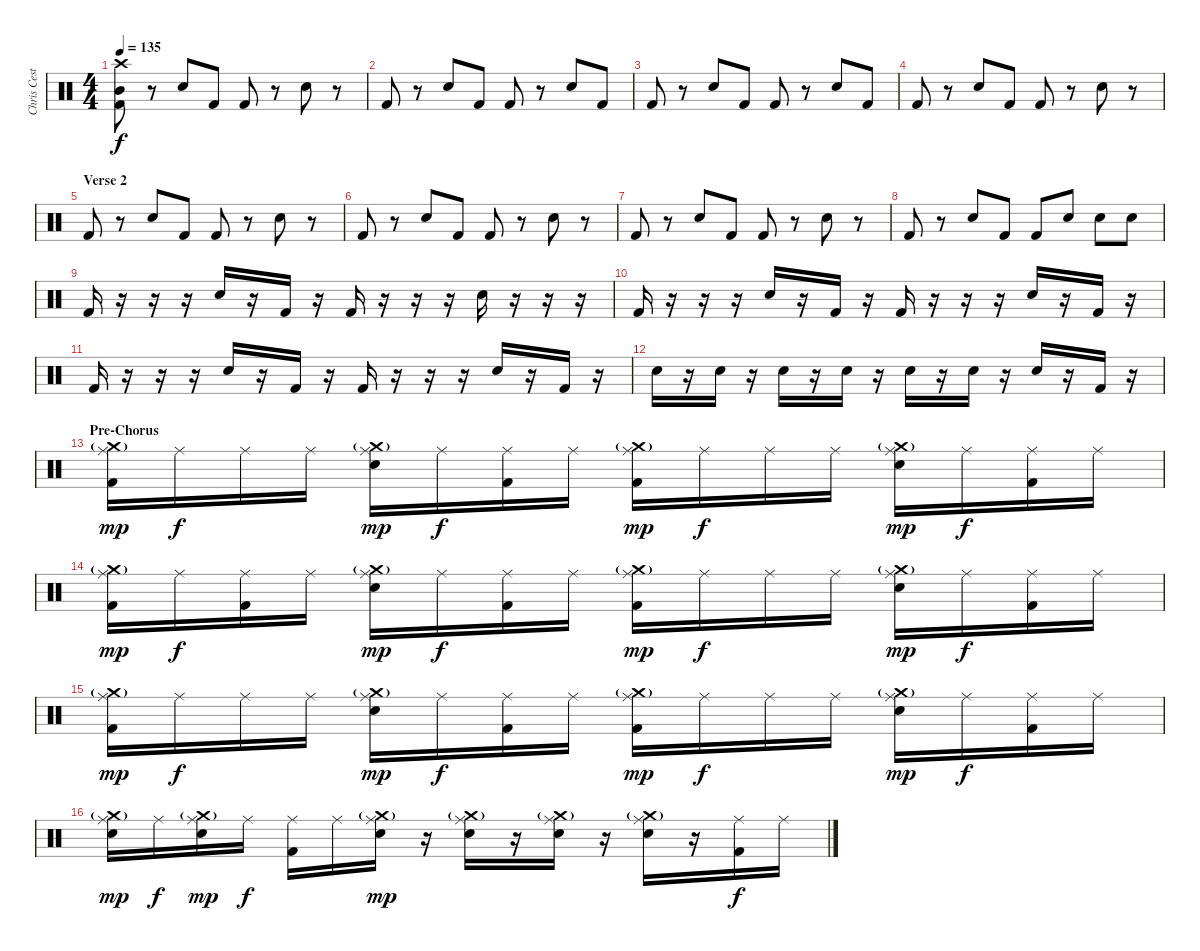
\track ("Chris Cester - Drums" "Chris Cest") {instrument percussion}
\staff {score}
\articulation defaults
\ts (4 4)
\tempo 135
\clef neutral
\ks c
("Crash high (hit)" "Mid Tom (hit)" "Kick (hit) 2").8{dy f} r.8 "Electric Snare (hit)".8 "Kick (hit) 2".8 "Kick (hit) 2".8 r.8 "Electric Snare (hit)".8 r.8 |
"Kick (hit) 2".8 r.8 "Electric Snare (hit)".8 "Kick (hit) 2".8 "Kick (hit) 2".8 r.8 "Electric Snare (hit)".8 "Kick (hit) 2".8 |
"Kick (hit) 2".8 r.8 "Electric Snare (hit)".8 "Kick (hit) 2".8 "Kick (hit) 2".8 r.8 "Electric Snare (hit)".8 "Kick (hit) 2".8 |
"Kick (hit) 2".8 r.8 "Electric Snare (hit)".8 "Kick (hit) 2".8 "Kick (hit) 2".8 r.8 "Electric Snare (hit)".8 r.8 |
\section ("" "Verse 2")
"Kick (hit) 2".8 r.8 "Electric Snare (hit)".8 "Kick (hit) 2".8 "Kick (hit) 2".8 r.8 "Electric Snare (hit)".8 r.8 |
"Kick (hit) 2".8 r.8 "Electric Snare (hit)".8 "Kick (hit) 2".8 "Kick (hit) 2".8 r.8 "Electric Snare (hit)".8 r.8 |
"Kick (hit) 2".8 r.8 "Electric Snare (hit)".8 "Kick (hit) 2".8 "Kick (hit) 2".8 r.8 "Electric Snare (hit)".8 r.8 |
"Kick (hit) 2".8 r.8 "Electric Snare (hit)".8 "Kick (hit) 2".8 "Kick (hit) 2".8 "Electric Snare (hit)".8 "Electric Snare (hit)".8 "Electric Snare (hit)".8 |
"Kick (hit) 2".16 r.16 r.16 r.16 "Electric Snare (hit)".16 r.16 "Kick (hit) 2".16 r.16 "Kick (hit) 2".16 r.16 r.16 r.16 "Electric Snare (hit)".16 r.16 r.16 r.16 |
"Kick (hit) 2".16 r.16 r.16 r.16 "Electric Snare (hit)".16 r.16 "Kick (hit) 2".16 r.16 "Kick (hit) 2".16 r.16 r.16 r.16 "Electric Snare (hit)".16 r.16 "Kick (hit) 2".16 r.16 |
"Kick (hit) 2".16 r.16 r.16 r.16 "Electric Snare (hit)".16 r.16 "Kick (hit) 2".16 r.16 "Kick (hit) 2".16 r.16 r.16 r.16 "Electric Snare (hit)".16 r.16 "Kick (hit) 2".16 r.16 |
"Electric Snare (hit)".16 r.16 "Electric Snare (hit)".16 r.16 "Electric Snare (hit)".16 r.16 "Electric Snare (hit)".16 r.16 "Electric Snare (hit)".16 r.16 "Electric Snare (hit)".16 r.16 "Electric Snare (hit)".16 r.16 "Kick (hit) 2".16 r.16 |
\section ("" "Pre-Chorus")
("Ride (middle)" "Crash medium (hit)"{g} "Kick (hit) 2").16{dy mp} "Ride (middle)".16{dy f} "Ride (middle)".16 "Ride (middle)".16 ("Ride (middle)" "Crash medium (hit)"{g} "Electric Snare (hit)").16{dy mp} "Ride (middle)".16{dy f} ("Ride (middle)" "Kick (hit) 2").16 "Ride (middle)".16 ("Ride (middle)" "Crash medium (hit)"{g} "Kick (hit) 2").16{dy mp} "Ride (middle)".16{dy f} "Ride (middle)".16 "Ride (middle)".16 ("Ride (middle)" "Crash medium (hit)"{g} "Electric Snare (hit)").16{dy mp} "Ride (middle)".16{dy f} ("Ride (middle)" "Kick (hit) 2").16 "Ride (middle)".16 |
("Ride (middle)" "Crash medium (hit)"{g} "Kick (hit) 2").16{dy mp} "Ride (middle)".16{dy f} ("Ride (middle)" "Kick (hit) 2").16 "Ride (middle)".16 ("Ride (middle)" "Crash medium (hit)"{g} "Electric Snare (hit)").16{dy mp} "Ride (middle)".16{dy f} ("Ride (middle)" "Kick (hit) 2").16 "Ride (middle)".16 ("Ride (middle)" "Crash medium (hit)"{g} "Kick (hit) 2").16{dy mp} "Ride (middle)".16{dy f} "Ride (middle)".16 "Ride (middle)".16 ("Ride (middle)" "Crash medium (hit)"{g} "Electric Snare (hit)").16{dy mp} "Ride (middle)".16{dy f} ("Ride (middle)" "Kick (hit) 2").16 "Ride (middle)".16 |
("Ride (middle)" "Crash medium (hit)"{g} "Kick (hit) 2").16{dy mp} "Ride (middle)".16{dy f} "Ride (middle)".16 "Ride (middle)".16 ("Ride (middle)" "Crash medium (hit)"{g} "Electric Snare (hit)").16{dy mp} "Ride (middle)".16{dy f} ("Ride (middle)" "Kick (hit) 2").16 "Ride (middle)".16 ("Ride (middle)" "Crash medium (hit)"{g} "Kick (hit) 2").16{dy mp} "Ride (middle)".16{dy f} "Ride (middle)".16 "Ride (middle)".16 ("Ride (middle)" "Crash medium (hit)"{g} "Electric Snare (hit)").16{dy mp} "Ride (middle)".16{dy f} ("Ride (middle)" "Kick (hit) 2").16 "Ride (middle)".16 |
("Ride (middle)" "Crash medium (hit)"{g} "Electric Snare (hit)").16{dy mp} "Ride (middle)".16{dy f} ("Ride (middle)" "Crash medium (hit)"{g} "Electric Snare (hit)").16{dy mp} "Ride (middle)".16{dy f} ("Ride (middle)" "Kick (hit) 2").16 "Ride (middle)".16 ("Ride (middle)" "Crash medium (hit)"{g} "Electric Snare (hit)").16{dy mp} r.16 ("Ride (middle)" "Crash medium (hit)"{g} "Electric Snare (hit)").16 r.16 ("Ride (middle)" "Crash medium (hit)"{g} "Electric Snare (hit)").16 r.16 ("Ride (middle)" "Crash medium (hit)"{g} "Electric Snare (hit)").16 r.16 ("Ride (middle)" "Kick (hit) 2").16{dy f} "Ride (middle)".16
